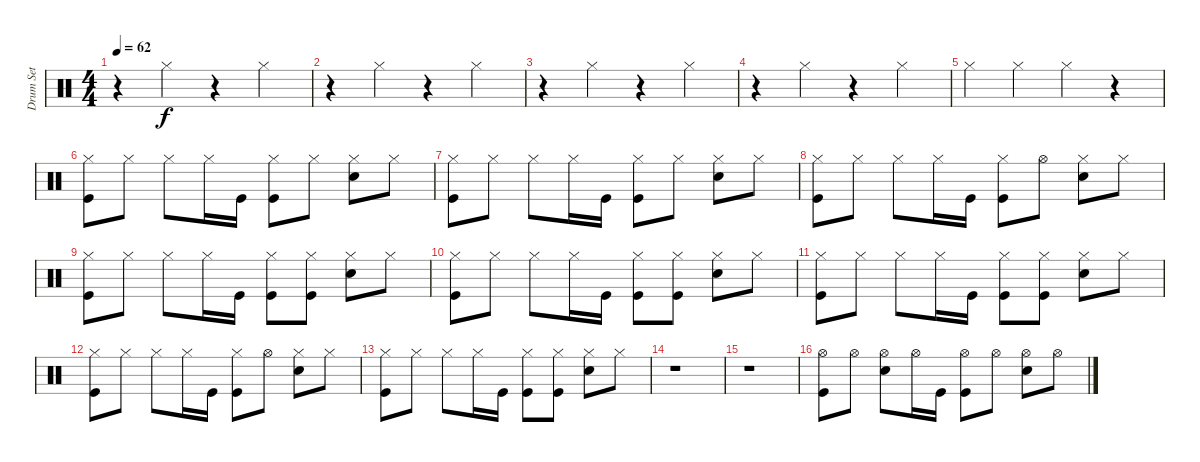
\track ("Drum Set" "Drum Set") {instrument percussion}
\staff {score}
\articulation defaults
\ts (4 4)
\tempo 62
\clef neutral
\ks c
r.4{dy f} "Hi-Hat (closed)".4 r.4 "Hi-Hat (closed)".4 |
r.4 "Hi-Hat (closed)".4 r.4 "Hi-Hat (closed)".4 |
r.4 "Hi-Hat (closed)".4 r.4 "Hi-Hat (closed)".4 |
r.4 "Hi-Hat (closed)".4 r.4 "Hi-Hat (closed)".4 |
"Hi-Hat (closed)".4 "Hi-Hat (closed)".4 "Hi-Hat (closed)".4 r.4 |
("Hi-Hat (closed)" "Kick (hit)").8 "Hi-Hat (closed)".8 "Hi-Hat (closed)".8 "Hi-Hat (closed)".16 "Kick (hit)".16 ("Hi-Hat (closed)" "Kick (hit)").8 "Hi-Hat (closed)".8 ("Hi-Hat (closed)" "Electric Snare (hit)").8 "Hi-Hat (closed)".8 |
("Hi-Hat (closed)" "Kick (hit)").8 "Hi-Hat (closed)".8 "Hi-Hat (closed)".8 "Hi-Hat (closed)".16 "Kick (hit)".16 ("Hi-Hat (closed)" "Kick (hit)").8 "Hi-Hat (closed)".8 ("Hi-Hat (closed)" "Electric Snare (hit)").8 "Hi-Hat (closed)".8 |
("Hi-Hat (closed)" "Kick (hit)").8 "Hi-Hat (closed)".8 "Hi-Hat (closed)".8 "Hi-Hat (closed)".16 "Kick (hit)".16 ("Hi-Hat (closed)" "Kick (hit)").8 "Hi-Hat (open)".8 ("Hi-Hat (closed)" "Electric Snare (hit)").8 "Hi-Hat (closed)".8 |
("Hi-Hat (closed)" "Kick (hit)").8 "Hi-Hat (closed)".8 "Hi-Hat (closed)".8 "Hi-Hat (closed)".16 "Kick (hit)".16 ("Hi-Hat (closed)" "Kick (hit)").8 ("Hi-Hat (closed)" "Kick (hit)").8 ("Hi-Hat (closed)" "Electric Snare (hit)").8 "Hi-Hat (closed)".8 |
("Hi-Hat (closed)" "Kick (hit)").8 "Hi-Hat (closed)".8 "Hi-Hat (closed)".8 "Hi-Hat (closed)".16 "Kick (hit)".16 ("Hi-Hat (closed)" "Kick (hit)").8 ("Hi-Hat (closed)" "Kick (hit)").8 ("Hi-Hat (closed)" "Electric Snare (hit)").8 "Hi-Hat (closed)".8 |
("Hi-Hat (closed)" "Kick (hit)").8 "Hi-Hat (closed)".8 "Hi-Hat (closed)".8 "Hi-Hat (closed)".16 "Kick (hit)".16 ("Hi-Hat (closed)" "Kick (hit)").8 ("Hi-Hat (closed)" "Kick (hit)").8 ("Hi-Hat (closed)" "Electric Snare (hit)").8 "Hi-Hat (closed)".8 |
("Hi-Hat (closed)" "Kick (hit)").8 "Hi-Hat (closed)".8 "Hi-Hat (closed)".8 "Hi-Hat (closed)".16 "Kick (hit)".16 ("Hi-Hat (closed)" "Kick (hit)").8 "Hi-Hat (open)".8 ("Hi-Hat (closed)" "Electric Snare (hit)").8 "Hi-Hat (closed)".8 |
("Hi-Hat (closed)" "Kick (hit)").8 "Hi-Hat (closed)".8 "Hi-Hat (closed)".8 "Hi-Hat (closed)".16 "Kick (hit)".16 ("Hi-Hat (closed)" "Kick (hit)").8 ("Hi-Hat (closed)" "Kick (hit)").8 ("Hi-Hat (closed)" "Electric Snare (hit)").8 "Hi-Hat (closed)".8 |
r.1 |
r.1 |
("Hi-Hat (open)" "Kick (hit)").8 "Hi-Hat (open)".8 ("Hi-Hat (open)" "Electric Snare (hit)").8 "Hi-Hat (open)".16 "Kick (hit)".16 ("Hi-Hat (open)" "Kick (hit)").8 "Hi-Hat (open)".8 ("Hi-Hat (open)" "Electric Snare (hit)").8 "Hi-Hat (open)".8
